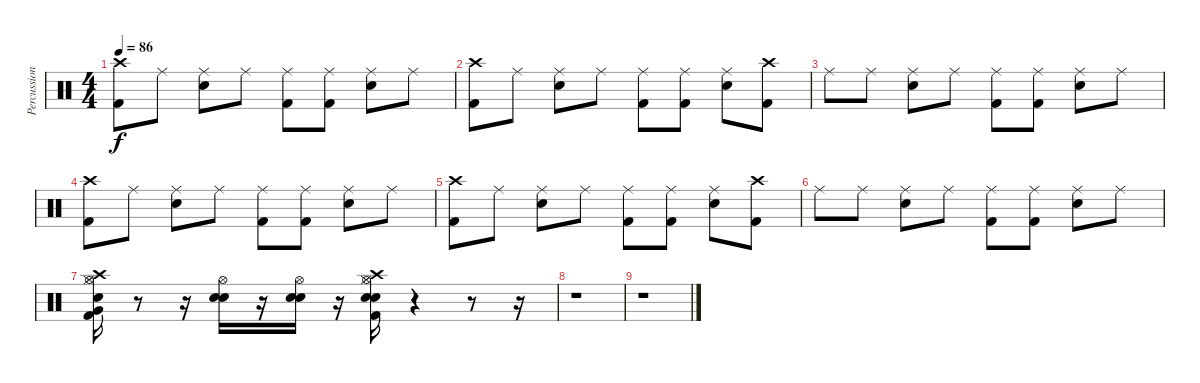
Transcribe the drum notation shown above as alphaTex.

\track ("Percussions (from MIDI)" "Percussion") {instrument percussion}
\staff {score}
\articulation defaults
\ts (4 4)
\tempo 86
\clef neutral
\ks c
("Crash high (hit)" "Kick (hit) 2").8{dy f} "Ride (middle)".8 ("Ride (middle)" "Electric Snare (hit)").8 "Ride (middle)".8 ("Ride (middle)" "Kick (hit) 2").8 ("Ride (middle)" "Kick (hit) 2").8 ("Ride (middle)" "Electric Snare (hit)").8 "Ride (middle)".8 |
("Crash high (hit)" "Kick (hit) 2").8 "Ride (middle)".8 ("Ride (middle)" "Electric Snare (hit)").8 "Ride (middle)".8 ("Ride (middle)" "Kick (hit) 2").8 ("Ride (middle)" "Kick (hit) 2").8 ("Ride (middle)" "Electric Snare (hit)").8 ("Crash high (hit)" "Kick (hit) 2").8 |
"Ride (middle)".8 "Ride (middle)".8 ("Ride (middle)" "Electric Snare (hit)").8 "Ride (middle)".8 ("Ride (middle)" "Kick (hit) 2").8 ("Ride (middle)" "Kick (hit) 2").8 ("Ride (middle)" "Electric Snare (hit)").8 "Ride (middle)".8 |
("Crash high (hit)" "Kick (hit) 2").8 "Ride (middle)".8 ("Ride (middle)" "Electric Snare (hit)").8 "Ride (middle)".8 ("Ride (middle)" "Kick (hit) 2").8 ("Ride (middle)" "Kick (hit) 2").8 ("Ride (middle)" "Electric Snare (hit)").8 "Ride (middle)".8 |
("Crash high (hit)" "Kick (hit) 2").8 "Ride (middle)".8 ("Ride (middle)" "Electric Snare (hit)").8 "Ride (middle)".8 ("Ride (middle)" "Kick (hit) 2").8 ("Ride (middle)" "Kick (hit) 2").8 ("Ride (middle)" "Electric Snare (hit)").8 ("Crash high (hit)" "Kick (hit) 2").8 |
"Ride (middle)".8 "Ride (middle)".8 ("Ride (middle)" "Electric Snare (hit)").8 "Ride (middle)".8 ("Ride (middle)" "Kick (hit) 2").8 ("Ride (middle)" "Kick (hit) 2").8 ("Ride (middle)" "Electric Snare (hit)").8 "Ride (middle)".8 |
("Snare (hit)" "Hi-Hat (open)" "Hi-Hat (closed)" "Very Low Tom (hit)" "Kick (hit) 2" "Crash high (hit)").16 r.8 r.16 ("Electric Snare (hit)" "Snare (hit) 2" "Hi-Hat (open)").16 r.16 ("Electric Snare (hit)" "Snare (hit) 2" "Hi-Hat (open)").16 r.16 ("Crash high (hit)" "Hi-Hat (open)" "Hi-Hat (closed)" "Electric Snare (hit)" "Snare (hit) 2" "Kick (hit) 2").16 r.4 r.8 r.16 |
r.1 |
r.1
